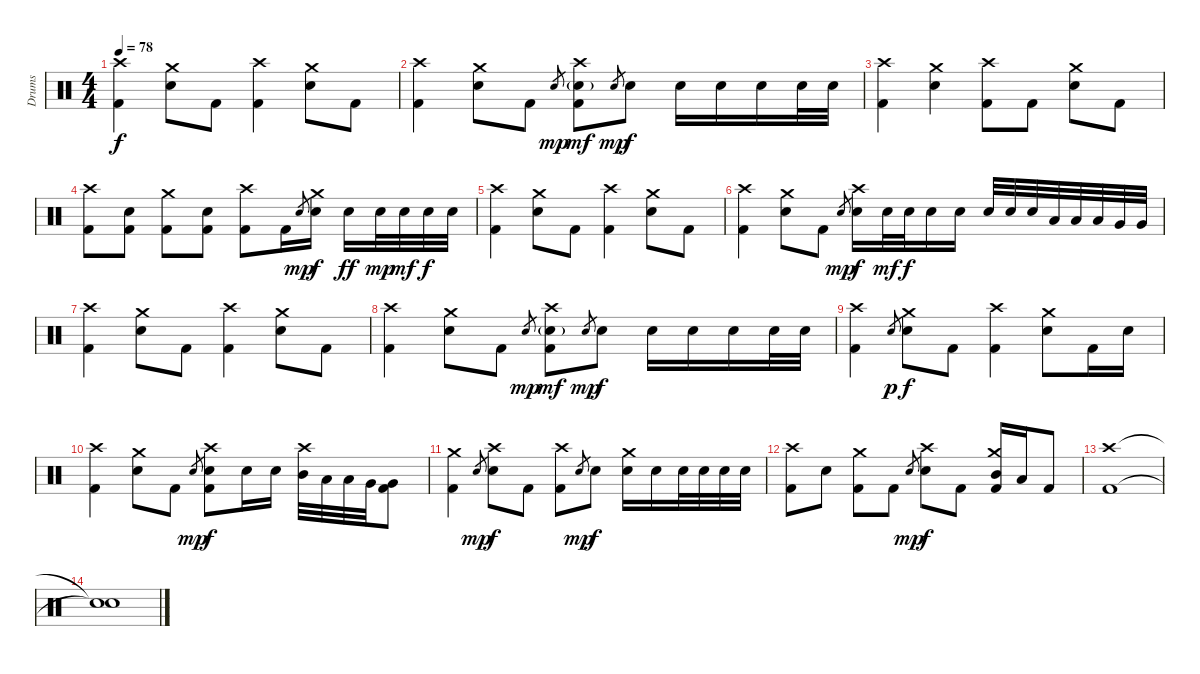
\track ("Drums" "Drums") {instrument percussion}
\staff {score}
\articulation defaults
\ts (4 4)
\tempo 78
\clef neutral
\ks c
("Crash high (hit)" "Kick (hit) 2").4{dy f} ("Crash medium (hit)" "Electric Snare (hit)").8 "Kick (hit) 2".8 ("Crash high (hit)" "Kick (hit) 2").4 ("Crash medium (hit)" "Electric Snare (hit)").8 "Kick (hit) 2".8 |
("Crash high (hit)" "Kick (hit) 2").4 ("Crash medium (hit)" "Electric Snare (hit)").8 "Kick (hit) 2".8 "Electric Snare (hit)".8{gr dy mp} ("Crash high (hit)" "Electric Snare (hit)"{g} "Kick (hit) 2").8{dy mf} "Electric Snare (hit)".8{gr dy mp} "Electric Snare (hit)".8{dy f} "Electric Snare (hit)".16 "Electric Snare (hit)".16 "Electric Snare (hit)".16 "Electric Snare (hit)".32 "Electric Snare (hit)".32 |
("Crash high (hit)" "Kick (hit) 2").4 ("Crash medium (hit)" "Electric Snare (hit)").4 ("Crash high (hit)" "Kick (hit) 2").8 "Kick (hit) 2".8 ("Crash medium (hit)" "Electric Snare (hit)").8 "Kick (hit) 2".8 |
("Crash high (hit)" "Kick (hit) 2").8 ("Electric Snare (hit)" "Kick (hit) 2").8 ("Crash medium (hit)" "Kick (hit) 2").8 ("Electric Snare (hit)" "Kick (hit) 2").8 ("Crash high (hit)" "Kick (hit) 2").8 "Kick (hit) 2".16 "Electric Snare (hit)".8{gr dy mp} ("Crash medium (hit)" "Electric Snare (hit)").16{dy f} "Electric Snare (hit)".16{dy ff} "Electric Snare (hit)".32{dy mp} "Electric Snare (hit)".32{dy mf} "Electric Snare (hit)".32{dy f} "Electric Snare (hit)".32 |
("Crash high (hit)" "Kick (hit) 2").4 ("Crash medium (hit)" "Electric Snare (hit)").8 "Kick (hit) 2".8 ("Crash high (hit)" "Kick (hit) 2").4 ("Crash medium (hit)" "Electric Snare (hit)").8 "Kick (hit) 2".8 |
("Crash high (hit)" "Kick (hit) 2").4 ("Crash medium (hit)" "Electric Snare (hit)").8 "Kick (hit) 2".8 "Electric Snare (hit)".8{gr dy mp} ("Crash high (hit)" "Electric Snare (hit)").16{dy f} "Electric Snare (hit)".32{dy mf} "Electric Snare (hit)".32{dy f} "Electric Snare (hit)".16 "Electric Snare (hit)".16 "Electric Snare (hit)".32 "Electric Snare (hit)".32 "Electric Snare (hit)".32 "Low Tom (hit)".32 "Low Tom (hit)".32 "Low Tom (hit)".32 "Very Low Tom (hit)".32 "Very Low Tom (hit)".32 |
("Crash high (hit)" "Kick (hit) 2").4 ("Crash medium (hit)" "Electric Snare (hit)").8 "Kick (hit) 2".8 ("Crash high (hit)" "Kick (hit) 2").4 ("Crash medium (hit)" "Electric Snare (hit)").8 "Kick (hit) 2".8 |
("Crash high (hit)" "Kick (hit) 2").4 ("Crash medium (hit)" "Electric Snare (hit)").8 "Kick (hit) 2".8 "Electric Snare (hit)".8{gr dy mp} ("Crash high (hit)" "Electric Snare (hit)"{g} "Kick (hit) 2").8{dy mf} "Electric Snare (hit)".8{gr dy mp} "Electric Snare (hit)".8{dy f} "Electric Snare (hit)".16 "Electric Snare (hit)".16 "Electric Snare (hit)".16 "Electric Snare (hit)".32 "Electric Snare (hit)".32 |
("Crash high (hit)" "Kick (hit) 2").4 "Electric Snare (hit)".8{gr dy p} ("Crash medium (hit)" "Electric Snare (hit)").8{dy f} "Kick (hit) 2".8 ("Crash high (hit)" "Kick (hit) 2").4 ("Crash medium (hit)" "Electric Snare (hit)").8 "Kick (hit) 2".16 "Electric Snare (hit)".16 |
("Crash high (hit)" "Kick (hit) 2").4 ("Crash medium (hit)" "Electric Snare (hit)").8 "Kick (hit) 2".8 "Electric Snare (hit)".8{gr dy mp} ("Crash high (hit)" "Electric Snare (hit)" "Kick (hit) 2").8{dy f} "Electric Snare (hit)".16 "Electric Snare (hit)".16 ("Crash high (hit)" "Mid Tom (hit)").32 "Low Tom (hit)".32 "Low Tom (hit)".32 "Very Low Tom (hit)".32 ("Very Low Tom (hit)" "Kick (hit) 2").8 |
("Crash medium (hit)" "Kick (hit) 2").4 "Electric Snare (hit)".8{gr dy mp} ("Crash high (hit)" "Electric Snare (hit)").8{dy f} "Kick (hit) 2".8 ("Crash high (hit)" "Kick (hit) 2").8 "Electric Snare (hit)".8{gr dy mp} "Electric Snare (hit)".8{dy f} ("Crash medium (hit)" "Electric Snare (hit)").16 "Electric Snare (hit)".16 "Electric Snare (hit)".32 "Electric Snare (hit)".32 "Electric Snare (hit)".32 "Electric Snare (hit)".32 |
("Crash high (hit)" "Kick (hit) 2").8 "Electric Snare (hit)".8 ("Crash medium (hit)" "Kick (hit) 2").8 "Kick (hit) 2".8 "Electric Snare (hit)".8{gr dy mp} ("Crash high (hit)" "Electric Snare (hit)").8{dy f} "Kick (hit) 2".8 ("Crash medium (hit)" "Mid Tom (hit)" "Kick (hit) 2").16 "Low Tom (hit)".16 "Kick (hit) 2".8 |
("Crash high (hit)" "Kick (hit) 2").1 |
("Snare (hit)"{t} "Snare (hit)"{t}).1
